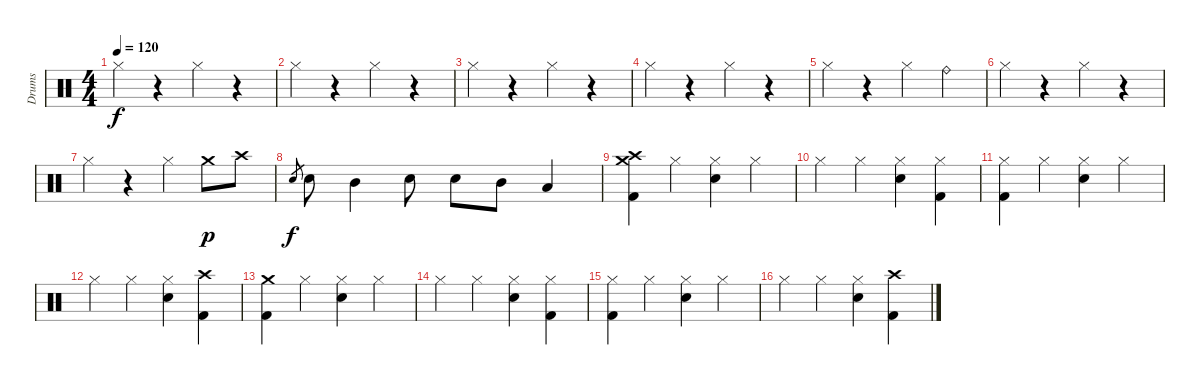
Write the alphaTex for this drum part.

\track ("Drums" "Drums") {instrument percussion}
\staff {score}
\articulation defaults
\ts (4 4)
\tempo 120
\clef neutral
\ks c "Hi-Hat (closed)".4{dy f}
r.4 "Hi-Hat (closed)".4 r.4 |
"Hi-Hat (closed)".4 r.4 "Hi-Hat (closed)".4 r.4 |
"Hi-Hat (closed)".4 r.4 "Hi-Hat (closed)".4 r.4 |
"Hi-Hat (closed)".4 r.4 "Hi-Hat (closed)".4 r.4 |
"Hi-Hat (closed)".4 r.4 "Hi-Hat (closed)".4 "Ride (bell)".4 |
"Hi-Hat (closed)".4 r.4 "Hi-Hat (closed)".4 r.4 |
"Hi-Hat (closed)".4 r.4 "Hi-Hat (closed)".4 "Crash medium (hit)".8{dy p} "Crash high (hit)".8 |
"Electric Snare (hit)".8{gr dy f} "Electric Snare (hit)".8 "Mid Tom (hit)".4 "Electric Snare (hit)".8 "Electric Snare (hit)".8 "Mid Tom (hit)".8 "Low Tom (hit)".4 |
("Crash medium (hit)" "Crash high (hit)" "Kick (hit) 2").4 "Hi-Hat (closed)".4 ("Electric Snare (hit)" "Hi-Hat (closed)").4 "Hi-Hat (closed)".4 |
"Hi-Hat (closed)".4 "Hi-Hat (closed)".4 ("Electric Snare (hit)" "Hi-Hat (closed)").4 ("Kick (hit) 2" "Hi-Hat (closed)").4 |
("Kick (hit) 2" "Hi-Hat (closed)").4 "Hi-Hat (closed)".4 ("Electric Snare (hit)" "Hi-Hat (closed)").4 "Hi-Hat (closed)".4 |
"Hi-Hat (closed)".4 "Hi-Hat (closed)".4 ("Electric Snare (hit)" "Hi-Hat (closed)").4 ("Kick (hit) 2" "Crash high (hit)").4 |
("Crash medium (hit)" "Kick (hit) 2").4 "Hi-Hat (closed)".4 ("Electric Snare (hit)" "Hi-Hat (closed)").4 "Hi-Hat (closed)".4 |
"Hi-Hat (closed)".4 "Hi-Hat (closed)".4 ("Electric Snare (hit)" "Hi-Hat (closed)").4 ("Kick (hit) 2" "Hi-Hat (closed)").4 |
("Kick (hit) 2" "Hi-Hat (closed)").4 "Hi-Hat (closed)".4 ("Electric Snare (hit)" "Hi-Hat (closed)").4 "Hi-Hat (closed)".4 |
"Hi-Hat (closed)".4 "Hi-Hat (closed)".4 ("Electric Snare (hit)" "Hi-Hat (closed)").4 ("Kick (hit) 2" "Crash high (hit)").4
